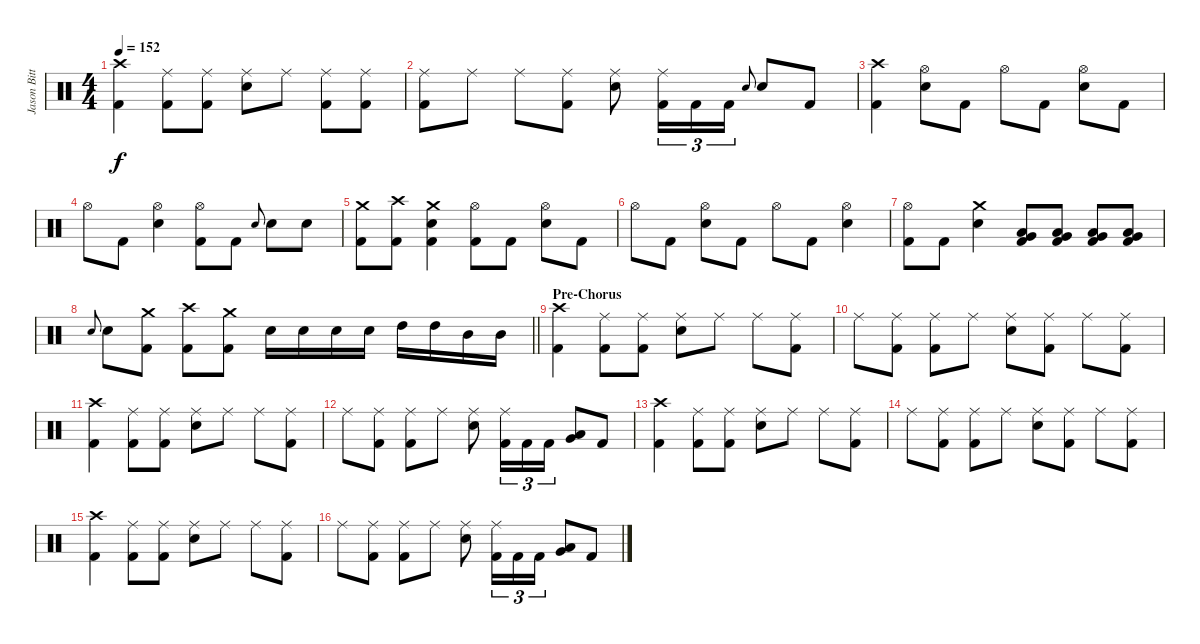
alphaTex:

\track ("Jason Bittner" "Jason Bitt") {instrument percussion}
\staff {score}
\articulation defaults
\ts (4 4)
\tempo 152
\clef neutral
\ks c
("Crash high (hit)" "Kick (hit) 2").4{dy f} ("Ride (middle)" "Kick (hit) 2").8 ("Ride (middle)" "Kick (hit) 2").8 ("Ride (middle)" "Electric Snare (hit)").8 "Ride (middle)".8 ("Ride (middle)" "Kick (hit) 2").8 ("Ride (middle)" "Kick (hit) 2").8 |
("Ride (middle)" "Kick (hit) 2").8 "Ride (middle)".8 "Ride (middle)".8 ("Ride (middle)" "Kick (hit) 2").8 ("Ride (middle)" "Electric Snare (hit)").8 ("Ride (middle)" "Kick (hit) 2").16{tu (3 2)} "Kick (hit) 2".16{tu (3 2)} "Kick (hit) 2".16{tu (3 2)} "Electric Snare (hit)".8{gr onbeat} "Electric Snare (hit)".8 "Kick (hit) 2".8 |
("Crash high (hit)" "Kick (hit) 2").4 ("Hi-Hat (open)" "Electric Snare (hit)").8 "Kick (hit) 2".8 "Hi-Hat (open)".8 "Kick (hit) 2".8 ("Hi-Hat (open)" "Electric Snare (hit)").8 "Kick (hit) 2".8 |
"Hi-Hat (open)".8 "Kick (hit) 2".8 ("Hi-Hat (open)" "Electric Snare (hit)").4 ("Hi-Hat (open)" "Kick (hit) 2").8 "Kick (hit) 2".8 "Electric Snare (hit)".8{gr onbeat} "Electric Snare (hit)".8 "Electric Snare (hit)".8 |
("Crash medium (hit)" "Kick (hit) 2").8 ("Crash high (hit)" "Kick (hit) 2").8 ("Crash medium (hit)" "Electric Snare (hit)" "Kick (hit) 2").4 ("Hi-Hat (open)" "Kick (hit) 2").8 "Kick (hit) 2".8 ("Hi-Hat (open)" "Electric Snare (hit)").8 "Kick (hit) 2".8 |
"Hi-Hat (open)".8 "Kick (hit) 2".8 ("Hi-Hat (open)" "Electric Snare (hit)").8 "Kick (hit) 2".8 "Hi-Hat (open)".8 "Kick (hit) 2".8 ("Hi-Hat (open)" "Electric Snare (hit)").4 |
("Hi-Hat (open)" "Kick (hit) 2").8 "Kick (hit) 2".8 ("Crash medium (hit)" "Electric Snare (hit)").4 ("Low Tom (hit)" "Very Low Tom (hit)" "Kick (hit) 2").8 ("Low Tom (hit)" "Very Low Tom (hit)" "Kick (hit) 2").8 ("Low Tom (hit)" "Very Low Tom (hit)" "Kick (hit) 2").8 ("Low Tom (hit)" "Very Low Tom (hit)" "Kick (hit) 2").8 |
\barLineRight lightlight "Electric Snare (hit)".8{gr onbeat} "Electric Snare (hit)".8
("Crash medium (hit)" "Kick (hit) 2").8 ("Crash high (hit)" "Kick (hit) 2").8 ("Crash medium (hit)" "Kick (hit) 2").8 "Electric Snare (hit)".16 "Electric Snare (hit)".16 "Electric Snare (hit)".16 "Electric Snare (hit)".16 "High Tom (hit)".16 "High Tom (hit)".16 "Mid Tom (hit)".16 "Mid Tom (hit)".16 |
\section ("" "Pre-Chorus")
("Crash high (hit)" "Kick (hit) 2").4 ("Ride (middle)" "Kick (hit) 2").8 ("Ride (middle)" "Kick (hit) 2").8 ("Ride (middle)" "Electric Snare (hit)").8 "Ride (middle)".8 "Ride (middle)".8 ("Ride (middle)" "Kick (hit) 2").8 |
"Ride (middle)".8 ("Ride (middle)" "Kick (hit) 2").8 ("Ride (middle)" "Kick (hit) 2").8 "Ride (middle)".8 ("Ride (middle)" "Electric Snare (hit)").8 ("Ride (middle)" "Kick (hit) 2").8 "Ride (middle)".8 ("Ride (middle)" "Kick (hit) 2").8 |
("Crash high (hit)" "Kick (hit) 2").4 ("Ride (middle)" "Kick (hit) 2").8 ("Ride (middle)" "Kick (hit) 2").8 ("Ride (middle)" "Electric Snare (hit)").8 "Ride (middle)".8 "Ride (middle)".8 ("Ride (middle)" "Kick (hit) 2").8 |
"Ride (middle)".8 ("Ride (middle)" "Kick (hit) 2").8 ("Ride (middle)" "Kick (hit) 2").8 "Ride (middle)".8 ("Ride (middle)" "Electric Snare (hit)").8 ("Ride (middle)" "Kick (hit) 2").16{tu (3 2)} "Kick (hit) 2".16{tu (3 2)} "Kick (hit) 2".16{tu (3 2)} ("Low Tom (hit)" "Very Low Tom (hit)").8 "Kick (hit) 2".8 |
("Crash high (hit)" "Kick (hit) 2").4 ("Ride (middle)" "Kick (hit) 2").8 ("Ride (middle)" "Kick (hit) 2").8 ("Ride (middle)" "Electric Snare (hit)").8 "Ride (middle)".8 "Ride (middle)".8 ("Ride (middle)" "Kick (hit) 2").8 |
"Ride (middle)".8 ("Ride (middle)" "Kick (hit) 2").8 ("Ride (middle)" "Kick (hit) 2").8 "Ride (middle)".8 ("Ride (middle)" "Electric Snare (hit)").8 ("Ride (middle)" "Kick (hit) 2").8 "Ride (middle)".8 ("Ride (middle)" "Kick (hit) 2").8 |
("Crash high (hit)" "Kick (hit) 2").4 ("Ride (middle)" "Kick (hit) 2").8 ("Ride (middle)" "Kick (hit) 2").8 ("Ride (middle)" "Electric Snare (hit)").8 "Ride (middle)".8 "Ride (middle)".8 ("Ride (middle)" "Kick (hit) 2").8 |
"Ride (middle)".8 ("Ride (middle)" "Kick (hit) 2").8 ("Ride (middle)" "Kick (hit) 2").8 "Ride (middle)".8 ("Ride (middle)" "Electric Snare (hit)").8 ("Ride (middle)" "Kick (hit) 2").16{tu (3 2)} "Kick (hit) 2".16{tu (3 2)} "Kick (hit) 2".16{tu (3 2)} ("Low Tom (hit)" "Very Low Tom (hit)").8 "Kick (hit) 2".8
